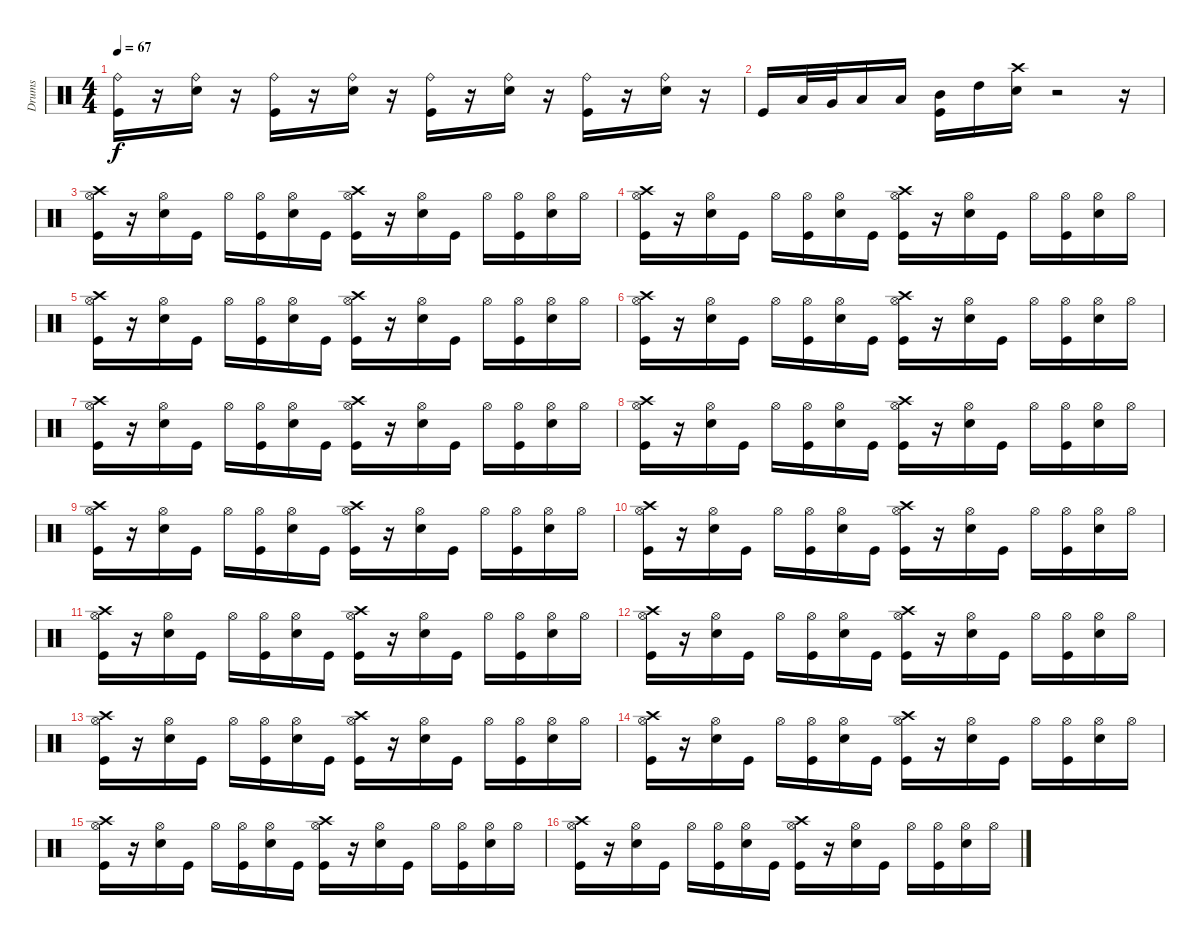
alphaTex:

\track ("Drums" "Drums") {instrument percussion}
\staff {score}
\articulation defaults
\ts (4 4)
\tempo 67
\clef neutral
\ks c
("Ride (bell)" "Kick (hit)").16{dy f} r.16 ("Ride (bell)" "Electric Snare (hit)").16 r.16 ("Ride (bell)" "Kick (hit)").16 r.16 ("Ride (bell)" "Electric Snare (hit)").16 r.16 ("Kick (hit)" "Ride (bell)").16 r.16 ("Ride (bell)" "Electric Snare (hit)").16 r.16 ("Kick (hit)" "Ride (bell)").16 r.16 ("Electric Snare (hit)" "Ride (bell)").16 r.16 |
"Kick (hit)".16 "Low Floor Tom (hit)".32 "Very Low Tom (hit)".32 "Low Tom (hit)".16 "Low Tom (hit)".16 ("Kick (hit)" "Mid Tom (hit)").16 "High Tom (hit)".16 ("Crash high (hit)" "Metronome (bell)").16 r.2 r.16 |
("Hi-Hat (open)" "Crash high (hit)" "Kick (hit)").16 r.16 ("Electric Snare (hit)" "Hi-Hat (open)").16 "Kick (hit)".16 "Hi-Hat (open)".16 ("Hi-Hat (open)" "Kick (hit)").16 ("Hi-Hat (open)" "Electric Snare (hit)").16 "Kick (hit)".16 ("Hi-Hat (open)" "Crash high (hit)" "Kick (hit)").16 r.16 ("Hi-Hat (open)" "Electric Snare (hit)").16 "Kick (hit)".16 "Hi-Hat (open)".16 ("Kick (hit)" "Hi-Hat (open)").16 ("Hi-Hat (open)" "Electric Snare (hit)").16 "Hi-Hat (open)".16 |
("Kick (hit)" "Hi-Hat (open)" "Crash high (hit)").16 r.16 ("Hi-Hat (open)" "Electric Snare (hit)").16 "Kick (hit)".16 "Hi-Hat (open)".16 ("Hi-Hat (open)" "Kick (hit)").16 ("Electric Snare (hit)" "Hi-Hat (open)").16 "Kick (hit)".16 ("Hi-Hat (open)" "Kick (hit)" "Crash high (hit)").16 r.16 ("Hi-Hat (open)" "Electric Snare (hit)").16 "Kick (hit)".16 "Hi-Hat (open)".16 ("Hi-Hat (open)" "Kick (hit)").16 ("Electric Snare (hit)" "Hi-Hat (open)").16 "Hi-Hat (open)".16 |
("Hi-Hat (open)" "Crash high (hit)" "Kick (hit)").16 r.16 ("Electric Snare (hit)" "Hi-Hat (open)").16 "Kick (hit)".16 "Hi-Hat (open)".16 ("Hi-Hat (open)" "Kick (hit)").16 ("Electric Snare (hit)" "Hi-Hat (open)").16 "Kick (hit)".16 ("Hi-Hat (open)" "Kick (hit)" "Crash high (hit)").16 r.16 ("Hi-Hat (open)" "Electric Snare (hit)").16 "Kick (hit)".16 "Hi-Hat (open)".16 ("Hi-Hat (open)" "Kick (hit)").16 ("Electric Snare (hit)" "Hi-Hat (open)").16 "Hi-Hat (open)".16 |
("Hi-Hat (open)" "Kick (hit)" "Crash high (hit)").16 r.16 ("Hi-Hat (open)" "Electric Snare (hit)").16 "Kick (hit)".16 "Hi-Hat (open)".16 ("Kick (hit)" "Hi-Hat (open)").16 ("Electric Snare (hit)" "Hi-Hat (open)").16 "Kick (hit)".16 ("Kick (hit)" "Hi-Hat (open)" "Crash high (hit)").16 r.16 ("Electric Snare (hit)" "Hi-Hat (open)").16 "Kick (hit)".16 "Hi-Hat (open)".16 ("Hi-Hat (open)" "Kick (hit)").16 ("Electric Snare (hit)" "Hi-Hat (open)").16 "Hi-Hat (open)".16 |
("Crash high (hit)" "Hi-Hat (open)" "Kick (hit)").16 r.16 ("Hi-Hat (open)" "Electric Snare (hit)").16 "Kick (hit)".16 "Hi-Hat (open)".16 ("Hi-Hat (open)" "Kick (hit)").16 ("Hi-Hat (open)" "Electric Snare (hit)").16 "Kick (hit)".16 ("Hi-Hat (open)" "Crash high (hit)" "Kick (hit)").16 r.16 ("Electric Snare (hit)" "Hi-Hat (open)").16 "Kick (hit)".16 "Hi-Hat (open)".16 ("Kick (hit)" "Hi-Hat (open)").16 ("Hi-Hat (open)" "Electric Snare (hit)").16 "Hi-Hat (open)".16 |
("Crash high (hit)" "Hi-Hat (open)" "Kick (hit)").16 r.16 ("Hi-Hat (open)" "Electric Snare (hit)").16 "Kick (hit)".16 "Hi-Hat (open)".16 ("Hi-Hat (open)" "Kick (hit)").16 ("Hi-Hat (open)" "Electric Snare (hit)").16 "Kick (hit)".16 ("Hi-Hat (open)" "Kick (hit)" "Crash high (hit)").16 r.16 ("Electric Snare (hit)" "Hi-Hat (open)").16 "Kick (hit)".16 "Hi-Hat (open)".16 ("Kick (hit)" "Hi-Hat (open)").16 ("Hi-Hat (open)" "Electric Snare (hit)").16 "Hi-Hat (open)".16 |
("Hi-Hat (open)" "Crash high (hit)" "Kick (hit)").16 r.16 ("Electric Snare (hit)" "Hi-Hat (open)").16 "Kick (hit)".16 "Hi-Hat (open)".16 ("Kick (hit)" "Hi-Hat (open)").16 ("Electric Snare (hit)" "Hi-Hat (open)").16 "Kick (hit)".16 ("Crash high (hit)" "Hi-Hat (open)" "Kick (hit)").16 r.16 ("Electric Snare (hit)" "Hi-Hat (open)").16 "Kick (hit)".16 "Hi-Hat (open)".16 ("Hi-Hat (open)" "Kick (hit)").16 ("Hi-Hat (open)" "Electric Snare (hit)").16 "Hi-Hat (open)".16 |
("Hi-Hat (open)" "Crash high (hit)" "Kick (hit)").16 r.16 ("Electric Snare (hit)" "Hi-Hat (open)").16 "Kick (hit)".16 "Hi-Hat (open)".16 ("Hi-Hat (open)" "Kick (hit)").16 ("Hi-Hat (open)" "Electric Snare (hit)").16 "Kick (hit)".16 ("Hi-Hat (open)" "Crash high (hit)" "Kick (hit)").16 r.16 ("Hi-Hat (open)" "Electric Snare (hit)").16 "Kick (hit)".16 "Hi-Hat (open)".16 ("Kick (hit)" "Hi-Hat (open)").16 ("Hi-Hat (open)" "Electric Snare (hit)").16 "Hi-Hat (open)".16 |
("Kick (hit)" "Hi-Hat (open)" "Crash high (hit)").16 r.16 ("Hi-Hat (open)" "Electric Snare (hit)").16 "Kick (hit)".16 "Hi-Hat (open)".16 ("Hi-Hat (open)" "Kick (hit)").16 ("Electric Snare (hit)" "Hi-Hat (open)").16 "Kick (hit)".16 ("Hi-Hat (open)" "Kick (hit)" "Crash high (hit)").16 r.16 ("Hi-Hat (open)" "Electric Snare (hit)").16 "Kick (hit)".16 "Hi-Hat (open)".16 ("Hi-Hat (open)" "Kick (hit)").16 ("Electric Snare (hit)" "Hi-Hat (open)").16 "Hi-Hat (open)".16 |
("Hi-Hat (open)" "Kick (hit)" "Crash high (hit)").16 r.16 ("Electric Snare (hit)" "Hi-Hat (open)").16 "Kick (hit)".16 "Hi-Hat (open)".16 ("Hi-Hat (open)" "Kick (hit)").16 ("Electric Snare (hit)" "Hi-Hat (open)").16 "Kick (hit)".16 ("Hi-Hat (open)" "Kick (hit)" "Crash high (hit)").16 r.16 ("Hi-Hat (open)" "Electric Snare (hit)").16 "Kick (hit)".16 "Hi-Hat (open)".16 ("Kick (hit)" "Hi-Hat (open)").16 ("Hi-Hat (open)" "Electric Snare (hit)").16 "Hi-Hat (open)".16 |
("Kick (hit)" "Hi-Hat (open)" "Crash high (hit)").16 r.16 ("Hi-Hat (open)" "Electric Snare (hit)").16 "Kick (hit)".16 "Hi-Hat (open)".16 ("Hi-Hat (open)" "Kick (hit)").16 ("Electric Snare (hit)" "Hi-Hat (open)").16 "Kick (hit)".16 ("Hi-Hat (open)" "Kick (hit)" "Crash high (hit)").16 r.16 ("Hi-Hat (open)" "Electric Snare (hit)").16 "Kick (hit)".16 "Hi-Hat (open)".16 ("Hi-Hat (open)" "Kick (hit)").16 ("Electric Snare (hit)" "Hi-Hat (open)").16 "Hi-Hat (open)".16 |
("Hi-Hat (open)" "Kick (hit)" "Crash high (hit)").16 r.16 ("Electric Snare (hit)" "Hi-Hat (open)").16 "Kick (hit)".16 "Hi-Hat (open)".16 ("Kick (hit)" "Hi-Hat (open)").16 ("Electric Snare (hit)" "Hi-Hat (open)").16 "Kick (hit)".16 ("Crash high (hit)" "Hi-Hat (open)" "Kick (hit)").16 r.16 ("Electric Snare (hit)" "Hi-Hat (open)").16 "Kick (hit)".16 "Hi-Hat (open)".16 ("Hi-Hat (open)" "Kick (hit)").16 ("Hi-Hat (open)" "Electric Snare (hit)").16 "Hi-Hat (open)".16 |
("Hi-Hat (open)" "Crash high (hit)" "Kick (hit)").16 r.16 ("Electric Snare (hit)" "Hi-Hat (open)").16 "Kick (hit)".16 "Hi-Hat (open)".16 ("Hi-Hat (open)" "Kick (hit)").16 ("Hi-Hat (open)" "Electric Snare (hit)").16 "Kick (hit)".16 ("Hi-Hat (open)" "Kick (hit)" "Crash high (hit)").16 r.16 ("Electric Snare (hit)" "Hi-Hat (open)").16 "Kick (hit)".16 "Hi-Hat (open)".16 ("Hi-Hat (open)" "Kick (hit)").16 ("Electric Snare (hit)" "Hi-Hat (open)").16 "Hi-Hat (open)".16 |
("Hi-Hat (open)" "Kick (hit)" "Crash high (hit)").16 r.16 ("Hi-Hat (open)" "Electric Snare (hit)").16 "Kick (hit)".16 "Hi-Hat (open)".16 ("Kick (hit)" "Hi-Hat (open)").16 ("Electric Snare (hit)" "Hi-Hat (open)").16 "Kick (hit)".16 ("Kick (hit)" "Hi-Hat (open)" "Crash high (hit)").16 r.16 ("Electric Snare (hit)" "Hi-Hat (open)").16 "Kick (hit)".16 "Hi-Hat (open)".16 ("Hi-Hat (open)" "Kick (hit)").16 ("Electric Snare (hit)" "Hi-Hat (open)").16 "Hi-Hat (open)".16
